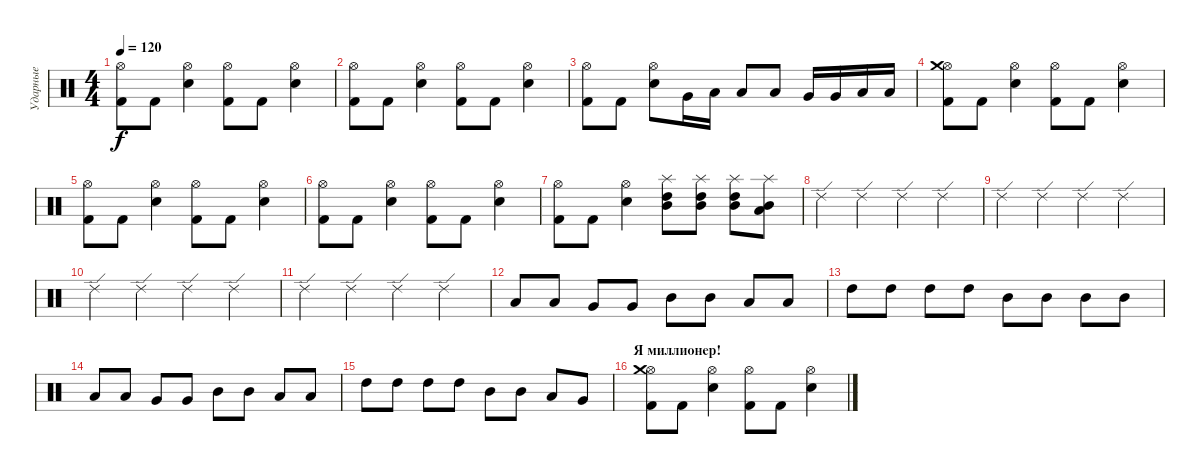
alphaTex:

\track ("Ударные" "Ударные") {instrument percussion}
\staff {score}
\articulation defaults
\ts (4 4)
\tempo 120
\clef neutral
\ks c
("Hi-Hat (open)" "Kick (hit) 2").8{dy f} "Kick (hit) 2".8 ("Hi-Hat (open)" "Electric Snare (hit)").4 ("Hi-Hat (open)" "Kick (hit) 2").8 "Kick (hit) 2".8 ("Hi-Hat (open)" "Electric Snare (hit)").4 |
("Hi-Hat (open)" "Kick (hit) 2").8 "Kick (hit) 2".8 ("Hi-Hat (open)" "Electric Snare (hit)").4 ("Hi-Hat (open)" "Kick (hit) 2").8 "Kick (hit) 2".8 ("Hi-Hat (open)" "Electric Snare (hit)").4 |
("Hi-Hat (open)" "Kick (hit) 2").8 "Kick (hit) 2".8 ("Hi-Hat (open)" "Electric Snare (hit)").8 "Very Low Tom (hit)".16 "Low Floor Tom (hit)".16 "Low Floor Tom (hit)".8 "Low Floor Tom (hit)".8 "Very Low Tom (hit)".16 "Very Low Tom (hit)".16 "Low Floor Tom (hit)".16 "Low Floor Tom (hit)".16 |
("Hi-Hat (open)" "Kick (hit) 2" "Crash medium (hit)").8 "Kick (hit) 2".8 ("Hi-Hat (open)" "Electric Snare (hit)").4 ("Hi-Hat (open)" "Kick (hit) 2").8 "Kick (hit) 2".8 ("Hi-Hat (open)" "Electric Snare (hit)").4 |
("Hi-Hat (open)" "Kick (hit) 2").8 "Kick (hit) 2".8 ("Hi-Hat (open)" "Electric Snare (hit)").4 ("Hi-Hat (open)" "Kick (hit) 2").8 "Kick (hit) 2".8 ("Hi-Hat (open)" "Electric Snare (hit)").4 |
("Hi-Hat (open)" "Kick (hit) 2").8 "Kick (hit) 2".8 ("Hi-Hat (open)" "Electric Snare (hit)").4 ("Hi-Hat (open)" "Kick (hit) 2").8 "Kick (hit) 2".8 ("Hi-Hat (open)" "Electric Snare (hit)").4 |
("Hi-Hat (open)" "Kick (hit) 2").8 "Kick (hit) 2".8 ("Hi-Hat (open)" "Electric Snare (hit)").4 ("Mid Tom (hit)" "High Tom (hit)" "Splash (hit)").8 ("Mid Tom (hit)" "High Tom (hit)" "Splash (hit)").8 ("Mid Tom (hit)" "High Tom (hit)" "Splash (hit)").8 ("Low Tom (hit)" "Mid Tom (hit)" "Splash (hit)").8 |
"Ride (edge) 2".4 "Ride (edge) 2".4 "Ride (edge) 2".4 "Ride (edge) 2".4 |
"Ride (edge) 2".4 "Ride (edge) 2".4 "Ride (edge) 2".4 "Ride (edge) 2".4 |
"Ride (edge) 2".4 "Ride (edge) 2".4 "Ride (edge) 2".4 "Ride (edge) 2".4 |
"Ride (edge) 2".4 "Ride (edge) 2".4 "Ride (edge) 2".4 "Ride (edge) 2".4 |
"Low Tom (hit)".8 "Low Tom (hit)".8 "Very Low Tom (hit)".8 "Very Low Tom (hit)".8 "Mid Tom (hit)".8 "Mid Tom (hit)".8 "Low Tom (hit)".8 "Low Tom (hit)".8 |
"High Tom (hit)".8 "High Tom (hit)".8 "High Tom (hit)".8 "High Tom (hit)".8 "Mid Tom (hit)".8 "Mid Tom (hit)".8 "Mid Tom (hit)".8 "Mid Tom (hit)".8 |
"Low Tom (hit)".8 "Low Tom (hit)".8 "Very Low Tom (hit)".8 "Very Low Tom (hit)".8 "Mid Tom (hit)".8 "Mid Tom (hit)".8 "Low Tom (hit)".8 "Low Tom (hit)".8 |
"High Tom (hit)".8 "High Tom (hit)".8 "High Tom (hit)".8 "High Tom (hit)".8 "Mid Tom (hit)".8 "Mid Tom (hit)".8 "Low Tom (hit)".8 "Very Low Tom (hit)".8 |
\section ("" "Я миллионер!")
("Hi-Hat (open)" "Kick (hit) 2" "Crash medium (hit)").8 "Kick (hit) 2".8 ("Hi-Hat (open)" "Electric Snare (hit)").4 ("Hi-Hat (open)" "Kick (hit) 2").8 "Kick (hit) 2".8 ("Hi-Hat (open)" "Electric Snare (hit)").4
